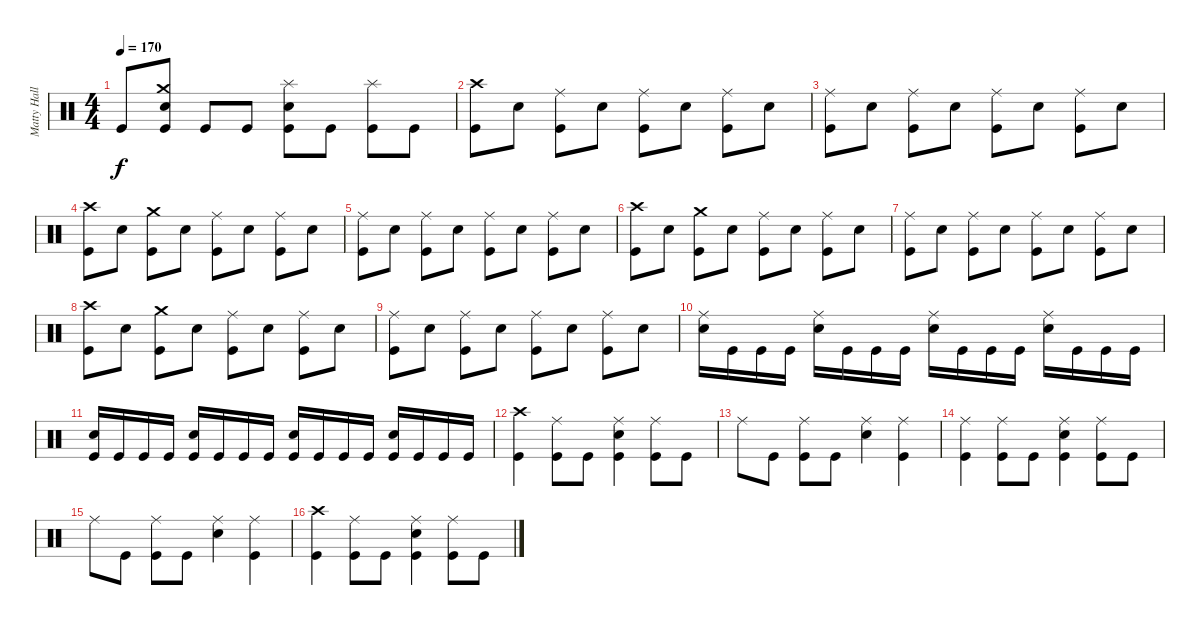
\track ("Matty Hallick - Drums" "Matty Hall") {instrument percussion}
\staff {score}
\articulation defaults
\ts (4 4)
\tempo 170
\clef neutral
\ks c "Kick (hit)".8{dy f}
("Crash medium (hit)" "Snare (hit) 2" "Kick (hit)").8 "Kick (hit)".8 "Kick (hit)".8 ("Splash (hit)" "Snare (hit) 2" "Kick (hit)").8 "Kick (hit)".8 ("Splash (hit)" "Kick (hit)").8 "Kick (hit)".8 |
("Crash high (hit)" "Kick (hit)").8 "Snare (hit) 2".8 ("Ride (middle)" "Kick (hit)").8 "Snare (hit) 2".8 ("Ride (middle)" "Kick (hit)").8 "Snare (hit) 2".8 ("Ride (middle)" "Kick (hit)").8 "Snare (hit) 2".8 |
("Ride (middle)" "Kick (hit)").8 "Snare (hit) 2".8 ("Ride (middle)" "Kick (hit)").8 "Snare (hit) 2".8 ("Ride (middle)" "Kick (hit)").8 "Snare (hit) 2".8 ("Ride (middle)" "Kick (hit)").8 "Snare (hit) 2".8 |
("Crash high (hit)" "Kick (hit)").8 "Snare (hit) 2".8 ("Crash medium (hit)" "Kick (hit)").8 "Snare (hit) 2".8 ("Ride (middle)" "Kick (hit)").8 "Snare (hit) 2".8 ("Ride (middle)" "Kick (hit)").8 "Snare (hit) 2".8 |
("Ride (middle)" "Kick (hit)").8 "Snare (hit) 2".8 ("Ride (middle)" "Kick (hit)").8 "Snare (hit) 2".8 ("Ride (middle)" "Kick (hit)").8 "Snare (hit) 2".8 ("Ride (middle)" "Kick (hit)").8 "Snare (hit) 2".8 |
("Crash high (hit)" "Kick (hit)").8 "Snare (hit) 2".8 ("Crash medium (hit)" "Kick (hit)").8 "Snare (hit) 2".8 ("Ride (middle)" "Kick (hit)").8 "Snare (hit) 2".8 ("Ride (middle)" "Kick (hit)").8 "Snare (hit) 2".8 |
("Ride (middle)" "Kick (hit)").8 "Snare (hit) 2".8 ("Ride (middle)" "Kick (hit)").8 "Snare (hit) 2".8 ("Ride (middle)" "Kick (hit)").8 "Snare (hit) 2".8 ("Ride (middle)" "Kick (hit)").8 "Snare (hit) 2".8 |
("Crash high (hit)" "Kick (hit)").8 "Snare (hit) 2".8 ("Crash medium (hit)" "Kick (hit)").8 "Snare (hit) 2".8 ("Ride (middle)" "Kick (hit)").8 "Snare (hit) 2".8 ("Ride (middle)" "Kick (hit)").8 "Snare (hit) 2".8 |
("Ride (middle)" "Kick (hit)").8 "Snare (hit) 2".8 ("Ride (middle)" "Kick (hit)").8 "Snare (hit) 2".8 ("Ride (middle)" "Kick (hit)").8 "Snare (hit) 2".8 ("Ride (middle)" "Kick (hit)").8 "Snare (hit) 2".8 |
("Ride (middle)" "Snare (hit) 2").16 "Kick (hit)".16 "Kick (hit)".16 "Kick (hit)".16 ("Ride (middle)" "Snare (hit) 2").16 "Kick (hit)".16 "Kick (hit)".16 "Kick (hit)".16 ("Ride (middle)" "Snare (hit) 2").16 "Kick (hit)".16 "Kick (hit)".16 "Kick (hit)".16 ("Ride (middle)" "Snare (hit) 2").16 "Kick (hit)".16 "Kick (hit)".16 "Kick (hit)".16 |
("Snare (hit) 2" "Kick (hit)").16 "Kick (hit)".16 "Kick (hit)".16 "Kick (hit)".16 ("Snare (hit) 2" "Kick (hit)").16 "Kick (hit)".16 "Kick (hit)".16 "Kick (hit)".16 ("Snare (hit) 2" "Kick (hit)").16 "Kick (hit)".16 "Kick (hit)".16 "Kick (hit)".16 ("Snare (hit) 2" "Kick (hit)").16 "Kick (hit)".16 "Kick (hit)".16 "Kick (hit)".16 |
("Crash high (hit)" "Kick (hit)").4 ("Ride (middle)" "Kick (hit)").8 "Kick (hit)".8 ("Ride (middle)" "Snare (hit) 2" "Kick (hit)").4 ("Ride (middle)" "Kick (hit)").8 "Kick (hit)".8 |
"Ride (middle)".8 "Kick (hit)".8 ("Ride (middle)" "Kick (hit)").8 "Kick (hit)".8 ("Ride (middle)" "Snare (hit) 2").4 ("Ride (middle)" "Kick (hit)").4 |
("Ride (middle)" "Kick (hit)").4 ("Ride (middle)" "Kick (hit)").8 "Kick (hit)".8 ("Ride (middle)" "Snare (hit) 2" "Kick (hit)").4 ("Ride (middle)" "Kick (hit)").8 "Kick (hit)".8 |
"Ride (middle)".8 "Kick (hit)".8 ("Ride (middle)" "Kick (hit)").8 "Kick (hit)".8 ("Ride (middle)" "Snare (hit) 2").4 ("Ride (middle)" "Kick (hit)").4 |
("Crash high (hit)" "Kick (hit)").4 ("Ride (middle)" "Kick (hit)").8 "Kick (hit)".8 ("Ride (middle)" "Snare (hit) 2" "Kick (hit)").4 ("Ride (middle)" "Kick (hit)").8 "Kick (hit)".8
